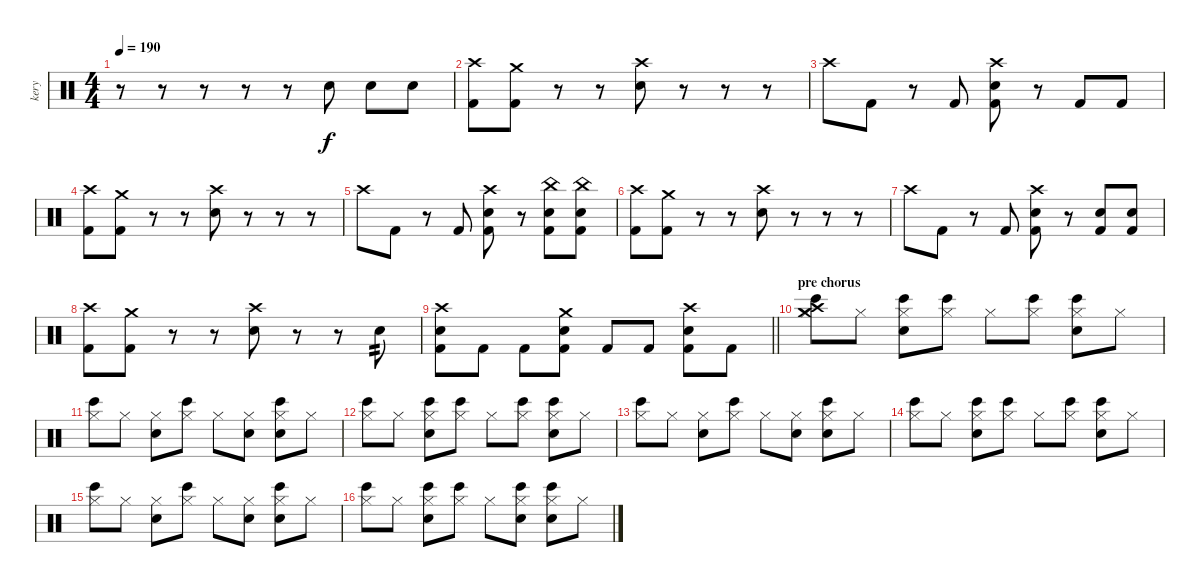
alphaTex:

\track ("kery" "kery") {instrument percussion}
\staff {score}
\articulation defaults
\ts (4 4)
\tempo 190
\clef neutral
\ks c
r.8{dy f} r.8 r.8 r.8 r.8 "Electric Snare (hit)".8 "Electric Snare (hit)".8 "Electric Snare (hit)".8 |
("Kick (hit) 2" "Crash high (hit)").8 ("Kick (hit) 2" "Crash medium (hit)").8 r.8 r.8 ("Electric Snare (hit)" "Crash high (hit)").8 r.8 r.8 r.8 |
"Crash high (hit)".8 "Kick (hit) 2".8 r.8 "Kick (hit) 2".8 ("Kick (hit) 2" "Electric Snare (hit)" "Crash high (hit)").8 r.8 "Kick (hit) 2".8 "Kick (hit) 2".8 |
("Kick (hit) 2" "Crash high (hit)").8 ("Kick (hit) 2" "Crash medium (hit)").8 r.8 r.8 ("Electric Snare (hit)" "Crash high (hit)").8 r.8 r.8 r.8 |
"Crash high (hit)".8 "Kick (hit) 2".8 r.8 "Kick (hit) 2".8 ("Kick (hit) 2" "Electric Snare (hit)" "Crash high (hit)").8 r.8 ("Kick (hit) 2" "Electric Snare (hit)" "China (hit)").8 ("Kick (hit) 2" "Electric Snare (hit)" "China (hit)").8 |
("Kick (hit) 2" "Crash high (hit)").8 ("Kick (hit) 2" "Crash medium (hit)").8 r.8 r.8 ("Electric Snare (hit)" "Crash high (hit)").8 r.8 r.8 r.8 |
"Crash high (hit)".8 "Kick (hit) 2".8 r.8 "Kick (hit) 2".8 ("Kick (hit) 2" "Electric Snare (hit)" "Crash high (hit)").8 r.8 ("Kick (hit) 2" "Electric Snare (hit)").8 ("Kick (hit) 2" "Electric Snare (hit)").8 |
("Kick (hit) 2" "Crash high (hit)").8 ("Kick (hit) 2" "Crash medium (hit)").8 r.8 r.8 ("Electric Snare (hit)" "Crash high (hit)").8 r.8 r.8 "Electric Snare (hit)".8{tp 2} |
\barLineRight lightlight
("Crash high (hit)" "Electric Snare (hit)" "Kick (hit) 2").8 "Kick (hit) 2".8 "Kick (hit) 2".8 ("Crash medium (hit)" "Electric Snare (hit)" "Kick (hit) 2").8 "Kick (hit) 2".8 "Kick (hit) 2".8 ("Crash high (hit)" "Electric Snare (hit)" "Kick (hit) 2").8 "Kick (hit) 2".8 |
\section ("" "pre chorus")
("Crash high (hit)" "Crash medium (hit)" "Bongo High (hit)" "Hi-Hat (closed)").8 "Hi-Hat (closed)".8 ("Electric Snare (hit)" "Bongo High (hit)" "Hi-Hat (closed)").8 ("Bongo High (hit)" "Hi-Hat (closed)").8 "Hi-Hat (closed)".8 ("Bongo High (hit)" "Hi-Hat (closed)").8 ("Electric Snare (hit)" "Bongo High (hit)" "Hi-Hat (closed)").8 "Hi-Hat (closed)".8 |
("Bongo High (hit)" "Hi-Hat (closed)").8 "Hi-Hat (closed)".8 ("Electric Snare (hit)" "Hi-Hat (closed)").8 ("Bongo High (hit)" "Hi-Hat (closed)").8 "Hi-Hat (closed)".8 ("Electric Snare (hit)" "Hi-Hat (closed)").8 ("Electric Snare (hit)" "Bongo High (hit)" "Hi-Hat (closed)").8 "Hi-Hat (closed)".8 |
("Bongo High (hit)" "Hi-Hat (closed)").8 "Hi-Hat (closed)".8 ("Electric Snare (hit)" "Bongo High (hit)" "Hi-Hat (closed)").8 ("Bongo High (hit)" "Hi-Hat (closed)").8 "Hi-Hat (closed)".8 ("Bongo High (hit)" "Hi-Hat (closed)").8 ("Electric Snare (hit)" "Bongo High (hit)" "Hi-Hat (closed)").8 "Hi-Hat (closed)".8 |
("Bongo High (hit)" "Hi-Hat (closed)").8 "Hi-Hat (closed)".8 ("Electric Snare (hit)" "Hi-Hat (closed)").8 ("Bongo High (hit)" "Hi-Hat (closed)").8 "Hi-Hat (closed)".8 ("Electric Snare (hit)" "Hi-Hat (closed)").8 ("Electric Snare (hit)" "Bongo High (hit)" "Hi-Hat (closed)").8 "Hi-Hat (closed)".8 |
("Bongo High (hit)" "Hi-Hat (closed)").8 "Hi-Hat (closed)".8 ("Electric Snare (hit)" "Bongo High (hit)" "Hi-Hat (closed)").8 ("Bongo High (hit)" "Hi-Hat (closed)").8 "Hi-Hat (closed)".8 ("Bongo High (hit)" "Hi-Hat (closed)").8 ("Electric Snare (hit)" "Bongo High (hit)" "Hi-Hat (closed)").8 "Hi-Hat (closed)".8 |
("Bongo High (hit)" "Hi-Hat (closed)").8 "Hi-Hat (closed)".8 ("Electric Snare (hit)" "Hi-Hat (closed)").8 ("Bongo High (hit)" "Hi-Hat (closed)").8 "Hi-Hat (closed)".8 ("Electric Snare (hit)" "Hi-Hat (closed)").8 ("Electric Snare (hit)" "Bongo High (hit)" "Hi-Hat (closed)").8 "Hi-Hat (closed)".8 |
("Bongo High (hit)" "Hi-Hat (closed)").8 "Hi-Hat (closed)".8 ("Electric Snare (hit)" "Bongo High (hit)" "Hi-Hat (closed)").8 ("Bongo High (hit)" "Hi-Hat (closed)").8 "Hi-Hat (closed)".8 ("Electric Snare (hit)" "Bongo High (hit)" "Hi-Hat (closed)").8 ("Electric Snare (hit)" "Bongo High (hit)" "Hi-Hat (closed)").8 "Hi-Hat (closed)".8
